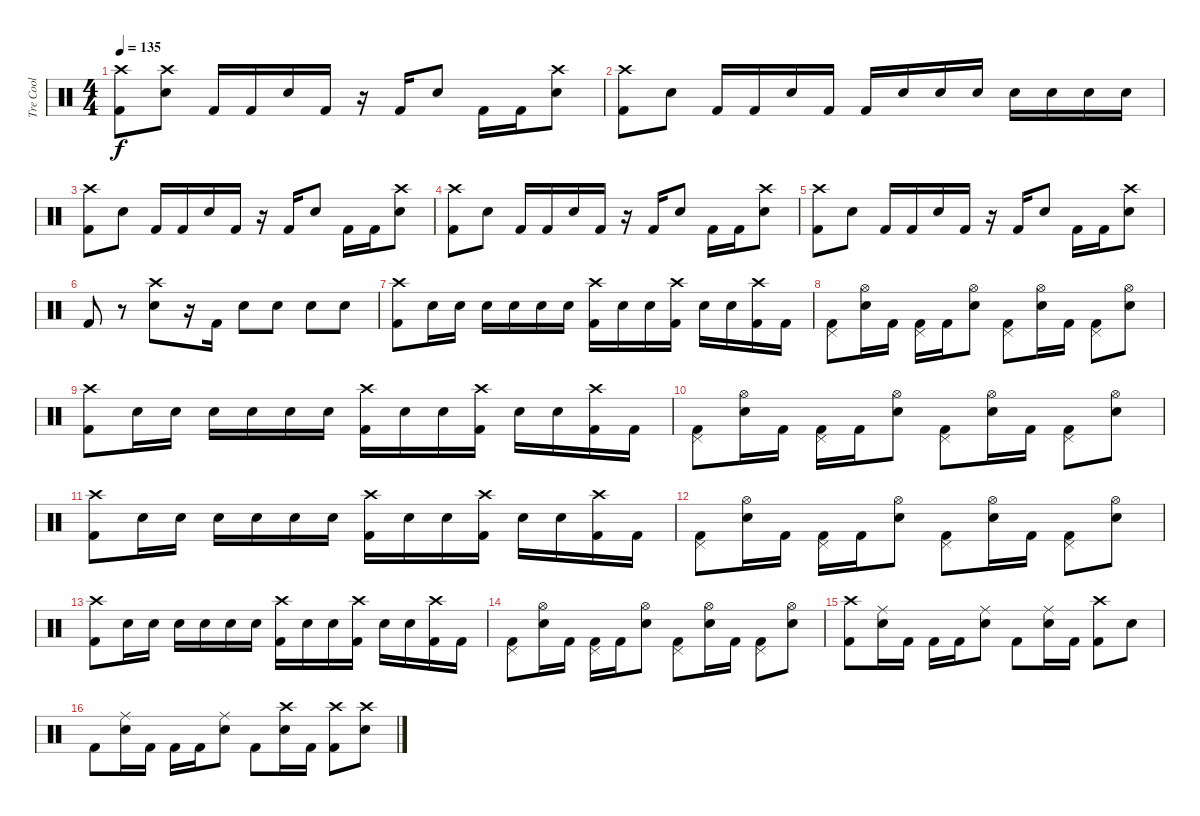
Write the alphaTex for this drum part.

\track ("Tre Cool" "Tre Cool") {instrument percussion}
\staff {score}
\articulation defaults
\ts (4 4)
\tempo 135
\clef neutral
\ks c
("Kick (hit) 2" "Crash high (hit)").8{dy f} ("Electric Snare (hit)" "Crash high (hit)").8 "Kick (hit) 2".16 "Kick (hit) 2".16 "Electric Snare (hit)".16 "Kick (hit) 2".16 r.16 "Kick (hit) 2".16 "Electric Snare (hit)".8 "Kick (hit) 2".16 "Kick (hit) 2".16 ("Electric Snare (hit)" "Crash high (hit)").8 |
("Kick (hit) 2" "Crash high (hit)").8 "Electric Snare (hit)".8 "Kick (hit) 2".16 "Kick (hit) 2".16 "Electric Snare (hit)".16 "Kick (hit) 2".16 "Kick (hit) 2".16 "Electric Snare (hit)".16 "Electric Snare (hit)".16 "Electric Snare (hit)".16 "Electric Snare (hit)".16 "Electric Snare (hit)".16 "Electric Snare (hit)".16 "Electric Snare (hit)".16 |
("Kick (hit) 2" "Crash high (hit)").8 "Electric Snare (hit)".8 "Kick (hit) 2".16 "Kick (hit) 2".16 "Electric Snare (hit)".16 "Kick (hit) 2".16 r.16 "Kick (hit) 2".16 "Electric Snare (hit)".8 "Kick (hit) 2".16 "Kick (hit) 2".16 ("Electric Snare (hit)" "Crash high (hit)").8 |
("Kick (hit) 2" "Crash high (hit)").8 "Electric Snare (hit)".8 "Kick (hit) 2".16 "Kick (hit) 2".16 "Electric Snare (hit)".16 "Kick (hit) 2".16 r.16 "Kick (hit) 2".16 "Electric Snare (hit)".8 "Kick (hit) 2".16 "Kick (hit) 2".16 ("Electric Snare (hit)" "Crash high (hit)").8 |
("Kick (hit) 2" "Crash high (hit)").8 "Electric Snare (hit)".8 "Kick (hit) 2".16 "Kick (hit) 2".16 "Electric Snare (hit)".16 "Kick (hit) 2".16 r.16 "Kick (hit) 2".16 "Electric Snare (hit)".8 "Kick (hit) 2".16 "Kick (hit) 2".16 ("Electric Snare (hit)" "Crash high (hit)").8 |
"Kick (hit) 2".8 r.8 ("Electric Snare (hit)" "Crash high (hit)").8 r.16 "Kick (hit) 2".16 "Electric Snare (hit)".8 "Electric Snare (hit)".8 "Electric Snare (hit)".8 "Electric Snare (hit)".8 |
("Kick (hit) 2" "Crash high (hit)").8 "Electric Snare (hit)".16 "Electric Snare (hit)".16 "Electric Snare (hit)".16 "Electric Snare (hit)".16 "Electric Snare (hit)".16 "Electric Snare (hit)".16 ("Kick (hit) 2" "Crash high (hit)").16 "Electric Snare (hit)".16 "Electric Snare (hit)".16 ("Kick (hit) 2" "Crash high (hit)").16 "Electric Snare (hit)".16 "Electric Snare (hit)".16 ("Kick (hit) 2" "Crash high (hit)").16 "Kick (hit) 2".16 |
("Pedal Hi-Hat (hit)" "Kick (hit) 2").8 ("Hi-Hat (open)" "Electric Snare (hit)").16 "Kick (hit) 2".16 ("Pedal Hi-Hat (hit)" "Kick (hit) 2").16 "Kick (hit) 2".16 ("Hi-Hat (open)" "Electric Snare (hit)").8 ("Pedal Hi-Hat (hit)" "Kick (hit) 2").8 ("Hi-Hat (open)" "Electric Snare (hit)").16 "Kick (hit) 2".16 ("Pedal Hi-Hat (hit)" "Kick (hit) 2").8 ("Hi-Hat (open)" "Electric Snare (hit)").8 |
("Kick (hit) 2" "Crash high (hit)").8 "Electric Snare (hit)".16 "Electric Snare (hit)".16 "Electric Snare (hit)".16 "Electric Snare (hit)".16 "Electric Snare (hit)".16 "Electric Snare (hit)".16 ("Kick (hit) 2" "Crash high (hit)").16 "Electric Snare (hit)".16 "Electric Snare (hit)".16 ("Kick (hit) 2" "Crash high (hit)").16 "Electric Snare (hit)".16 "Electric Snare (hit)".16 ("Kick (hit) 2" "Crash high (hit)").16 "Kick (hit) 2".16 |
("Pedal Hi-Hat (hit)" "Kick (hit) 2").8 ("Hi-Hat (open)" "Electric Snare (hit)").16 "Kick (hit) 2".16 ("Pedal Hi-Hat (hit)" "Kick (hit) 2").16 "Kick (hit) 2".16 ("Hi-Hat (open)" "Electric Snare (hit)").8 ("Pedal Hi-Hat (hit)" "Kick (hit) 2").8 ("Hi-Hat (open)" "Electric Snare (hit)").16 "Kick (hit) 2".16 ("Pedal Hi-Hat (hit)" "Kick (hit) 2").8 ("Hi-Hat (open)" "Electric Snare (hit)").8 |
("Kick (hit) 2" "Crash high (hit)").8 "Electric Snare (hit)".16 "Electric Snare (hit)".16 "Electric Snare (hit)".16 "Electric Snare (hit)".16 "Electric Snare (hit)".16 "Electric Snare (hit)".16 ("Kick (hit) 2" "Crash high (hit)").16 "Electric Snare (hit)".16 "Electric Snare (hit)".16 ("Kick (hit) 2" "Crash high (hit)").16 "Electric Snare (hit)".16 "Electric Snare (hit)".16 ("Kick (hit) 2" "Crash high (hit)").16 "Kick (hit) 2".16 |
("Pedal Hi-Hat (hit)" "Kick (hit) 2").8 ("Hi-Hat (open)" "Electric Snare (hit)").16 "Kick (hit) 2".16 ("Pedal Hi-Hat (hit)" "Kick (hit) 2").16 "Kick (hit) 2".16 ("Hi-Hat (open)" "Electric Snare (hit)").8 ("Pedal Hi-Hat (hit)" "Kick (hit) 2").8 ("Hi-Hat (open)" "Electric Snare (hit)").16 "Kick (hit) 2".16 ("Pedal Hi-Hat (hit)" "Kick (hit) 2").8 ("Hi-Hat (open)" "Electric Snare (hit)").8 |
("Kick (hit) 2" "Crash high (hit)").8 "Electric Snare (hit)".16 "Electric Snare (hit)".16 "Electric Snare (hit)".16 "Electric Snare (hit)".16 "Electric Snare (hit)".16 "Electric Snare (hit)".16 ("Kick (hit) 2" "Crash high (hit)").16 "Electric Snare (hit)".16 "Electric Snare (hit)".16 ("Kick (hit) 2" "Crash high (hit)").16 "Electric Snare (hit)".16 "Electric Snare (hit)".16 ("Kick (hit) 2" "Crash high (hit)").16 "Kick (hit) 2".16 |
("Pedal Hi-Hat (hit)" "Kick (hit) 2").8 ("Hi-Hat (open)" "Electric Snare (hit)").16 "Kick (hit) 2".16 ("Pedal Hi-Hat (hit)" "Kick (hit) 2").16 "Kick (hit) 2".16 ("Hi-Hat (open)" "Electric Snare (hit)").8 ("Pedal Hi-Hat (hit)" "Kick (hit) 2").8 ("Hi-Hat (open)" "Electric Snare (hit)").16 "Kick (hit) 2".16 ("Pedal Hi-Hat (hit)" "Kick (hit) 2").8 ("Hi-Hat (open)" "Electric Snare (hit)").8 |
("Kick (hit) 2" "Crash high (hit)").8 ("Electric Snare (hit)" "Ride (middle)").16 "Kick (hit) 2".16 "Kick (hit) 2".16 "Kick (hit) 2".16 ("Electric Snare (hit)" "Ride (middle)").8 "Kick (hit) 2".8 ("Electric Snare (hit)" "Ride (middle)").16 "Kick (hit) 2".16 ("Kick (hit) 2" "Crash high (hit)").8 "Electric Snare (hit)".8 |
"Kick (hit) 2".8 ("Electric Snare (hit)" "Ride (middle)").16 "Kick (hit) 2".16 "Kick (hit) 2".16 "Kick (hit) 2".16 ("Electric Snare (hit)" "Ride (middle)").8 "Kick (hit) 2".8 ("Electric Snare (hit)" "Crash high (hit)").16 "Kick (hit) 2".16 ("Kick (hit) 2" "Crash high (hit)").8 ("Electric Snare (hit)" "Crash high (hit)").8
